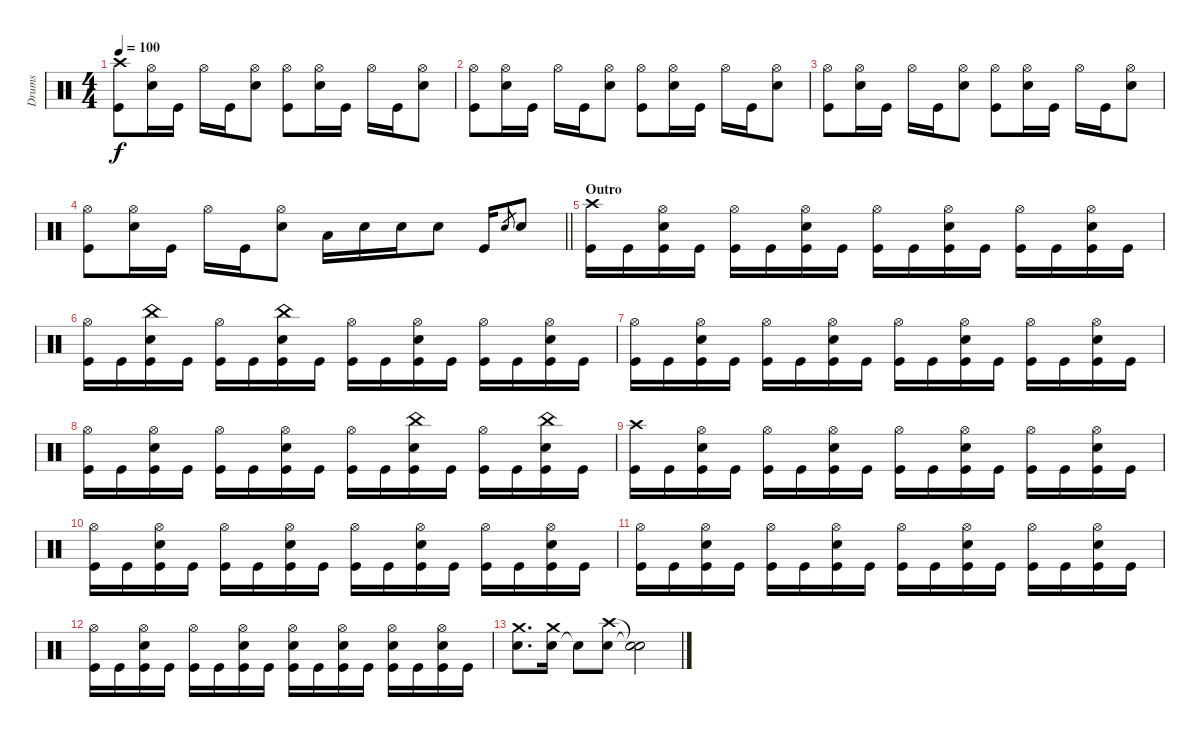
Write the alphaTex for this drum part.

\track ("Drums" "Drums") {instrument percussion}
\staff {score}
\articulation defaults
\ts (4 4)
\tempo 100
\clef neutral
\ks c
("Kick (hit)" "Crash high (hit)").8{dy f} ("Electric Snare (hit)" "Hi-Hat (open)").16 "Kick (hit)".16 "Hi-Hat (open)".16 "Kick (hit)".16 ("Electric Snare (hit)" "Hi-Hat (open)").8 ("Kick (hit)" "Hi-Hat (open)").8 ("Electric Snare (hit)" "Hi-Hat (open)").16 "Kick (hit)".16 "Hi-Hat (open)".16 "Kick (hit)".16 ("Electric Snare (hit)" "Hi-Hat (open)").8 |
("Kick (hit)" "Hi-Hat (open)").8 ("Electric Snare (hit)" "Hi-Hat (open)").16 "Kick (hit)".16 "Hi-Hat (open)".16 "Kick (hit)".16 ("Electric Snare (hit)" "Hi-Hat (open)").8 ("Kick (hit)" "Hi-Hat (open)").8 ("Electric Snare (hit)" "Hi-Hat (open)").16 "Kick (hit)".16 "Hi-Hat (open)".16 "Kick (hit)".16 ("Electric Snare (hit)" "Hi-Hat (open)").8 |
("Kick (hit)" "Hi-Hat (open)").8 ("Electric Snare (hit)" "Hi-Hat (open)").16 "Kick (hit)".16 "Hi-Hat (open)".16 "Kick (hit)".16 ("Electric Snare (hit)" "Hi-Hat (open)").8 ("Kick (hit)" "Hi-Hat (open)").8 ("Electric Snare (hit)" "Hi-Hat (open)").16 "Kick (hit)".16 "Hi-Hat (open)".16 "Kick (hit)".16 ("Electric Snare (hit)" "Hi-Hat (open)").8 |
\barLineRight lightlight
("Kick (hit)" "Hi-Hat (open)").8 ("Electric Snare (hit)" "Hi-Hat (open)").16 "Kick (hit)".16 "Hi-Hat (open)".16 "Kick (hit)".16 ("Electric Snare (hit)" "Hi-Hat (open)").8 "Low Tom (hit)".16 "Electric Snare (hit)".16 "Electric Snare (hit)".16 "Electric Snare (hit)".8 "Kick (hit)".16 "Electric Snare (hit)".8{gr} "Electric Snare (hit)".8 |
\section ("" "Outro")
("Kick (hit)" "Crash high (hit)").16 "Kick (hit)".16 ("Kick (hit)" "Electric Snare (hit)" "Hi-Hat (open)").16 "Kick (hit)".16 ("Kick (hit)" "Hi-Hat (open)").16 "Kick (hit)".16 ("Kick (hit)" "Electric Snare (hit)" "Hi-Hat (open)").16 "Kick (hit)".16 ("Kick (hit)" "Hi-Hat (open)").16 "Kick (hit)".16 ("Kick (hit)" "Electric Snare (hit)" "Hi-Hat (open)").16 "Kick (hit)".16 ("Kick (hit)" "Hi-Hat (open)").16 "Kick (hit)".16 ("Kick (hit)" "Electric Snare (hit)" "Hi-Hat (open)").16 "Kick (hit)".16 |
("Kick (hit)" "Hi-Hat (open)").16 "Kick (hit)".16 ("Kick (hit)" "Electric Snare (hit)" "China (hit)").16 "Kick (hit)".16 ("Kick (hit)" "Hi-Hat (open)").16 "Kick (hit)".16 ("Kick (hit)" "Electric Snare (hit)" "China (hit)").16 "Kick (hit)".16 ("Kick (hit)" "Hi-Hat (open)").16 "Kick (hit)".16 ("Kick (hit)" "Electric Snare (hit)" "Hi-Hat (open)").16 "Kick (hit)".16 ("Kick (hit)" "Hi-Hat (open)").16 "Kick (hit)".16 ("Kick (hit)" "Electric Snare (hit)" "Hi-Hat (open)").16 "Kick (hit)".16 |
("Kick (hit)" "Hi-Hat (open)").16 "Kick (hit)".16 ("Kick (hit)" "Electric Snare (hit)" "Hi-Hat (open)").16 "Kick (hit)".16 ("Kick (hit)" "Hi-Hat (open)").16 "Kick (hit)".16 ("Kick (hit)" "Electric Snare (hit)" "Hi-Hat (open)").16 "Kick (hit)".16 ("Kick (hit)" "Hi-Hat (open)").16 "Kick (hit)".16 ("Kick (hit)" "Electric Snare (hit)" "Hi-Hat (open)").16 "Kick (hit)".16 ("Kick (hit)" "Hi-Hat (open)").16 "Kick (hit)".16 ("Kick (hit)" "Electric Snare (hit)" "Hi-Hat (open)").16 "Kick (hit)".16 |
("Kick (hit)" "Hi-Hat (open)").16 "Kick (hit)".16 ("Kick (hit)" "Electric Snare (hit)" "Hi-Hat (open)").16 "Kick (hit)".16 ("Kick (hit)" "Hi-Hat (open)").16 "Kick (hit)".16 ("Kick (hit)" "Electric Snare (hit)" "Hi-Hat (open)").16 "Kick (hit)".16 ("Kick (hit)" "Hi-Hat (open)").16 "Kick (hit)".16 ("Kick (hit)" "Electric Snare (hit)" "China (hit)").16 "Kick (hit)".16 ("Kick (hit)" "Hi-Hat (open)").16 "Kick (hit)".16 ("Kick (hit)" "Electric Snare (hit)" "China (hit)").16 "Kick (hit)".16 |
("Kick (hit)" "Crash high (hit)").16 "Kick (hit)".16 ("Kick (hit)" "Electric Snare (hit)" "Hi-Hat (open)").16 "Kick (hit)".16 ("Kick (hit)" "Hi-Hat (open)").16 "Kick (hit)".16 ("Kick (hit)" "Electric Snare (hit)" "Hi-Hat (open)").16 "Kick (hit)".16 ("Kick (hit)" "Hi-Hat (open)").16 "Kick (hit)".16 ("Kick (hit)" "Electric Snare (hit)" "Hi-Hat (open)").16 "Kick (hit)".16 ("Kick (hit)" "Hi-Hat (open)").16 "Kick (hit)".16 ("Kick (hit)" "Electric Snare (hit)" "Hi-Hat (open)").16 "Kick (hit)".16 |
("Kick (hit)" "Hi-Hat (open)").16 "Kick (hit)".16 ("Kick (hit)" "Electric Snare (hit)" "Hi-Hat (open)").16 "Kick (hit)".16 ("Kick (hit)" "Hi-Hat (open)").16 "Kick (hit)".16 ("Kick (hit)" "Electric Snare (hit)" "Hi-Hat (open)").16 "Kick (hit)".16 ("Kick (hit)" "Hi-Hat (open)").16 "Kick (hit)".16 ("Kick (hit)" "Electric Snare (hit)" "Hi-Hat (open)").16 "Kick (hit)".16 ("Kick (hit)" "Hi-Hat (open)").16 "Kick (hit)".16 ("Kick (hit)" "Electric Snare (hit)" "Hi-Hat (open)").16 "Kick (hit)".16 |
("Kick (hit)" "Hi-Hat (open)").16 "Kick (hit)".16 ("Kick (hit)" "Electric Snare (hit)" "Hi-Hat (open)").16 "Kick (hit)".16 ("Kick (hit)" "Hi-Hat (open)").16 "Kick (hit)".16 ("Kick (hit)" "Electric Snare (hit)" "Hi-Hat (open)").16 "Kick (hit)".16 ("Kick (hit)" "Hi-Hat (open)").16 "Kick (hit)".16 ("Kick (hit)" "Electric Snare (hit)" "Hi-Hat (open)").16 "Kick (hit)".16 ("Kick (hit)" "Hi-Hat (open)").16 "Kick (hit)".16 ("Kick (hit)" "Electric Snare (hit)" "Hi-Hat (open)").16 "Kick (hit)".16 |
("Kick (hit)" "Hi-Hat (open)").16 "Kick (hit)".16 ("Kick (hit)" "Electric Snare (hit)" "Hi-Hat (open)").16 "Kick (hit)".16 ("Kick (hit)" "Hi-Hat (open)").16 "Kick (hit)".16 ("Kick (hit)" "Electric Snare (hit)" "Hi-Hat (open)").16 "Kick (hit)".16 ("Kick (hit)" "Electric Snare (hit)" "Hi-Hat (open)").16 "Kick (hit)".16 ("Kick (hit)" "Electric Snare (hit)" "Hi-Hat (open)").16 "Kick (hit)".16 ("Kick (hit)" "Electric Snare (hit)" "Hi-Hat (open)").16 "Kick (hit)".16 ("Kick (hit)" "Electric Snare (hit)" "Hi-Hat (open)").16 "Kick (hit)".16 |
("Electric Snare (hit)" "Crash medium (hit)").8{d} ("Electric Snare (hit)" "Crash medium (hit)").16 "Snare (hit)"{t}.8{beam merge} ("Electric Snare (hit)" "Crash high (hit)").8 ("Snare (hit)"{t} "Snare (hit)"{t}).2
